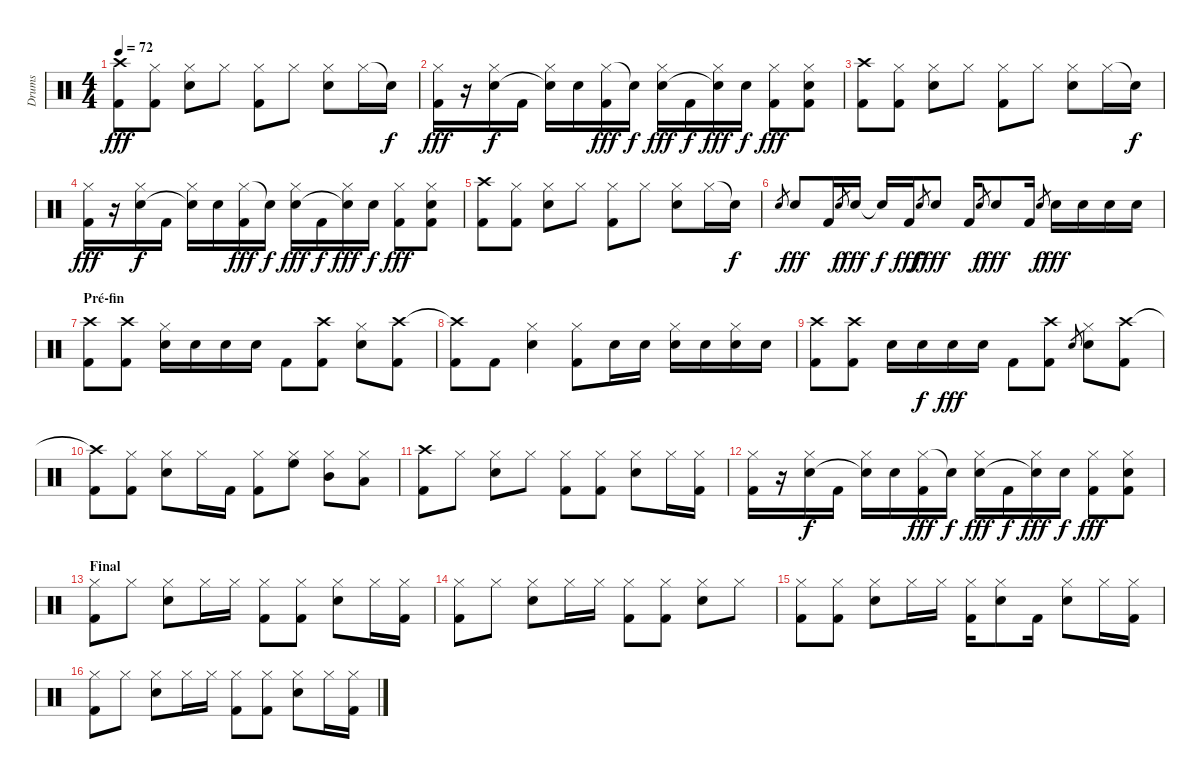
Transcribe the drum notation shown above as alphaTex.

\track ("Drums" "Drums") {instrument percussion}
\staff {score}
\articulation defaults
\ts (4 4)
\tempo 72
\clef neutral
\ks c
("Crash high (hit)" "Kick (hit) 2").8{dy fff} ("Hi-Hat (closed)" "Kick (hit) 2").8 ("Hi-Hat (closed)" "Snare (hit) 2").8 "Hi-Hat (closed)".8 ("Hi-Hat (closed)" "Kick (hit) 2").8 "Hi-Hat (closed)".8 ("Hi-Hat (closed)" "Snare (hit) 2").8 "Hi-Hat (closed)".16 "Snare (hit)"{t}.16{dy f} |
("Hi-Hat (closed)" "Kick (hit) 2").16{dy fff} r.16 ("Hi-Hat (closed)" "Snare (hit) 2").16{dy f} "Kick (hit) 2".16 ("Hi-Hat (closed)" "Snare (hit)"{t}).16 "Snare (hit) 2".16 ("Hi-Hat (closed)" "Kick (hit) 2").16{dy fff} "Snare (hit)"{t}.16{dy f} ("Hi-Hat (closed)" "Snare (hit) 2").16{dy fff} "Kick (hit) 2".16{dy f} ("Hi-Hat (closed)" "Snare (hit)"{t}).16{dy fff} "Snare (hit) 2".16{dy f} ("Hi-Hat (closed)" "Kick (hit) 2").8{dy fff} ("Hi-Hat (closed)" "Snare (hit) 2" "Kick (hit) 2").8 |
("Crash high (hit)" "Kick (hit) 2").8 ("Hi-Hat (closed)" "Kick (hit) 2").8 ("Hi-Hat (closed)" "Snare (hit) 2").8 "Hi-Hat (closed)".8 ("Hi-Hat (closed)" "Kick (hit) 2").8 "Hi-Hat (closed)".8 ("Hi-Hat (closed)" "Snare (hit) 2").8 "Hi-Hat (closed)".16 "Snare (hit)"{t}.16{dy f} |
("Hi-Hat (closed)" "Kick (hit) 2").16{dy fff} r.16 ("Hi-Hat (closed)" "Snare (hit) 2").16{dy f} "Kick (hit) 2".16 ("Hi-Hat (closed)" "Snare (hit)"{t}).16 "Snare (hit) 2".16 ("Hi-Hat (closed)" "Kick (hit) 2").16{dy fff} "Snare (hit)"{t}.16{dy f} ("Hi-Hat (closed)" "Snare (hit) 2").16{dy fff} "Kick (hit) 2".16{dy f} ("Hi-Hat (closed)" "Snare (hit)"{t}).16{dy fff} "Snare (hit) 2".16{dy f} ("Hi-Hat (closed)" "Kick (hit) 2").8{dy fff} ("Hi-Hat (closed)" "Snare (hit) 2" "Kick (hit) 2").8 |
("Crash high (hit)" "Kick (hit) 2").8 ("Hi-Hat (closed)" "Kick (hit) 2").8 ("Hi-Hat (closed)" "Snare (hit) 2").8 "Hi-Hat (closed)".8 ("Hi-Hat (closed)" "Kick (hit) 2").8 "Hi-Hat (closed)".8 ("Hi-Hat (closed)" "Snare (hit) 2").8 "Hi-Hat (closed)".16 "Snare (hit)"{t}.16{dy f} |
"Snare (hit) 2".8{gr} "Snare (hit) 2".8{dy fff} "Kick (hit) 2".16 "Snare (hit) 2".8{gr dy f} "Snare (hit) 2".16{dy fff} "Snare (hit)"{t}.16{dy f} "Kick (hit) 2".16{dy fff} "Snare (hit) 2".8{gr dy f} "Snare (hit) 2".8{dy fff} "Kick (hit) 2".16 "Snare (hit) 2".8{gr dy f} "Snare (hit) 2".8{dy fff} "Kick (hit) 2".16 "Snare (hit) 2".8{gr dy f} "Snare (hit) 2".16{dy fff} "Snare (hit) 2".16 "Snare (hit) 2".16 "Snare (hit) 2".16 |
\section ("" "Pré-fin")
("Crash high (hit)" "Kick (hit) 2").8 ("Crash high (hit)" "Kick (hit) 2").8 ("Hi-Hat (closed)" "Snare (hit) 2").16 "Snare (hit) 2".16 "Snare (hit) 2".16 "Snare (hit) 2".16 "Kick (hit) 2".8 ("Crash high (hit)" "Kick (hit) 2").8 ("Hi-Hat (closed)" "Snare (hit) 2").8 ("Crash high (hit)" "Kick (hit) 2").8 |
("Crash high (hit)"{t} "Kick (hit) 2").8 "Kick (hit) 2".8 ("Hi-Hat (closed)" "Snare (hit) 2").4 ("Hi-Hat (closed)" "Kick (hit) 2").8 "Snare (hit) 2".16 "Snare (hit) 2".16 ("Hi-Hat (closed)" "Snare (hit) 2").16 "Snare (hit) 2".16 ("Hi-Hat (closed)" "Snare (hit) 2").16 "Snare (hit) 2".16 |
("Crash high (hit)" "Kick (hit) 2").8 ("Crash high (hit)" "Kick (hit) 2").8 "Snare (hit) 2".16 "Snare (hit) 2".16{dy f} "Snare (hit) 2".16{dy fff} "Snare (hit) 2".16 "Kick (hit) 2".8 ("Crash high (hit)" "Kick (hit) 2").8 "Snare (hit) 2".8{gr} ("Hi-Hat (closed)" "Snare (hit) 2").8 ("Crash high (hit)" "Kick (hit) 2").8 |
("Crash high (hit)"{t} "Kick (hit) 2").8 ("Hi-Hat (closed)" "Kick (hit) 2").8 ("Hi-Hat (closed)" "Snare (hit) 2").8 "Hi-Hat (closed)".16 "Kick (hit) 2".16 ("Hi-Hat (closed)" "Kick (hit) 2").8 ("Hi-Hat (closed)" "High Floor Tom (hit)").8 ("Hi-Hat (closed)" "Mid Tom (hit)").8 ("Hi-Hat (closed)" "Low Tom (hit)").8 |
("Crash high (hit)" "Kick (hit) 2").8 "Hi-Hat (closed)".8 ("Hi-Hat (closed)" "Snare (hit) 2").8 "Hi-Hat (closed)".8 ("Hi-Hat (closed)" "Kick (hit) 2").8 ("Hi-Hat (closed)" "Kick (hit) 2").8 ("Hi-Hat (closed)" "Snare (hit) 2").8 "Hi-Hat (closed)".16 ("Hi-Hat (closed)" "Kick (hit) 2").16 |
("Hi-Hat (closed)" "Kick (hit) 2").16 r.16 ("Hi-Hat (closed)" "Snare (hit) 2").16{dy f} "Kick (hit) 2".16 ("Hi-Hat (closed)" "Snare (hit)"{t}).16 "Snare (hit) 2".16 ("Hi-Hat (closed)" "Kick (hit) 2").16{dy fff} "Snare (hit)"{t}.16{dy f} ("Hi-Hat (closed)" "Snare (hit) 2").16{dy fff} "Kick (hit) 2".16{dy f} ("Hi-Hat (closed)" "Snare (hit)"{t}).16{dy fff} "Snare (hit) 2".16{dy f} ("Hi-Hat (closed)" "Kick (hit) 2").8{dy fff} ("Hi-Hat (closed)" "Snare (hit) 2" "Kick (hit) 2").8 |
\section ("" "Final")
("Hi-Hat (closed)" "Kick (hit) 2").8 "Hi-Hat (closed)".8 ("Hi-Hat (closed)" "Snare (hit) 2").8 "Hi-Hat (closed)".16 "Hi-Hat (closed)".16 ("Hi-Hat (closed)" "Kick (hit) 2").8 ("Hi-Hat (closed)" "Kick (hit) 2").8 ("Hi-Hat (closed)" "Snare (hit) 2").8 "Hi-Hat (closed)".16 ("Hi-Hat (closed)" "Kick (hit) 2").16 |
("Hi-Hat (closed)" "Kick (hit) 2").8 "Hi-Hat (closed)".8 ("Hi-Hat (closed)" "Snare (hit) 2").8 "Hi-Hat (closed)".16 "Hi-Hat (closed)".16 ("Hi-Hat (closed)" "Kick (hit) 2").8 ("Hi-Hat (closed)" "Kick (hit) 2").8 ("Hi-Hat (closed)" "Snare (hit) 2").8 "Hi-Hat (closed)".8 |
("Hi-Hat (closed)" "Kick (hit) 2").8 ("Hi-Hat (closed)" "Kick (hit) 2").8 ("Hi-Hat (closed)" "Snare (hit) 2").8 "Hi-Hat (closed)".16 "Hi-Hat (closed)".16 ("Hi-Hat (closed)" "Kick (hit) 2").16 ("Hi-Hat (closed)" "Snare (hit) 2").8 "Kick (hit) 2".16 ("Hi-Hat (closed)" "Snare (hit) 2").8 "Hi-Hat (closed)".16 ("Hi-Hat (closed)" "Kick (hit) 2").16 |
("Hi-Hat (closed)" "Kick (hit) 2").8 "Hi-Hat (closed)".8 ("Hi-Hat (closed)" "Snare (hit) 2").8 "Hi-Hat (closed)".16 "Hi-Hat (closed)".16 ("Hi-Hat (closed)" "Kick (hit) 2").8 ("Hi-Hat (closed)" "Kick (hit) 2").8 ("Hi-Hat (closed)" "Snare (hit) 2").8 "Hi-Hat (closed)".16 ("Hi-Hat (closed)" "Kick (hit) 2").16
